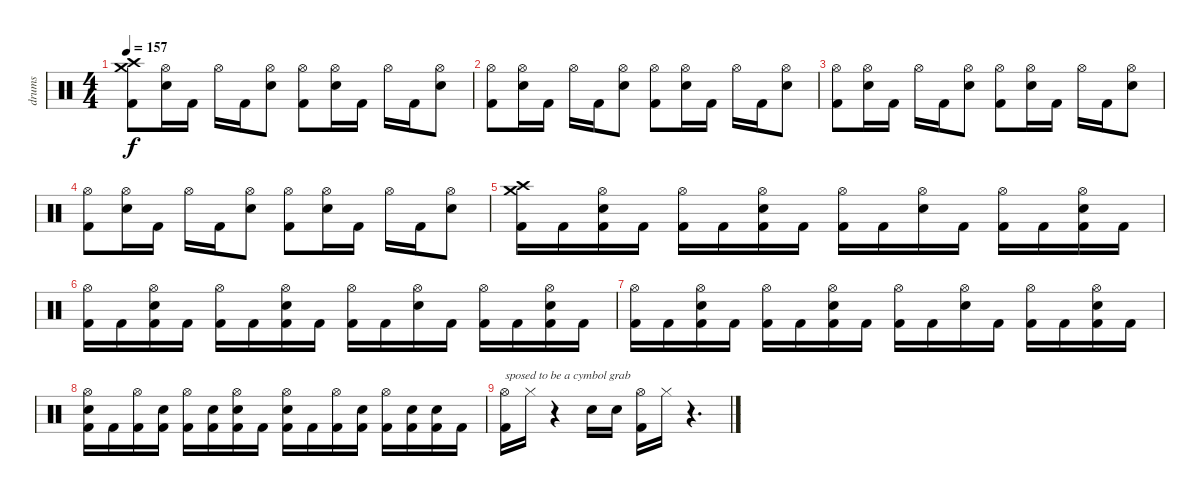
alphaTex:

\track ("drums" "drums") {instrument percussion}
\staff {score}
\articulation defaults
\ts (4 4)
\tempo 157
\clef neutral
\ks c
("Crash high (hit)" "Crash medium (hit)" "Kick (hit) 2").8{dy f} ("Hi-Hat (open)" "Electric Snare (hit)").16 "Kick (hit) 2".16 "Hi-Hat (open)".16 "Kick (hit) 2".16 ("Hi-Hat (open)" "Electric Snare (hit)").8 ("Hi-Hat (open)" "Kick (hit) 2").8 ("Hi-Hat (open)" "Electric Snare (hit)").16 "Kick (hit) 2".16 "Hi-Hat (open)".16 "Kick (hit) 2".16 ("Hi-Hat (open)" "Electric Snare (hit)").8 |
("Hi-Hat (open)" "Kick (hit) 2").8 ("Hi-Hat (open)" "Electric Snare (hit)").16 "Kick (hit) 2".16 "Hi-Hat (open)".16 "Kick (hit) 2".16 ("Hi-Hat (open)" "Electric Snare (hit)").8 ("Hi-Hat (open)" "Kick (hit) 2").8 ("Hi-Hat (open)" "Electric Snare (hit)").16 "Kick (hit) 2".16 "Hi-Hat (open)".16 "Kick (hit) 2".16 ("Hi-Hat (open)" "Electric Snare (hit)").8 |
("Hi-Hat (open)" "Kick (hit) 2").8 ("Hi-Hat (open)" "Electric Snare (hit)").16 "Kick (hit) 2".16 "Hi-Hat (open)".16 "Kick (hit) 2".16 ("Hi-Hat (open)" "Electric Snare (hit)").8 ("Hi-Hat (open)" "Kick (hit) 2").8 ("Hi-Hat (open)" "Electric Snare (hit)").16 "Kick (hit) 2".16 "Hi-Hat (open)".16 "Kick (hit) 2".16 ("Hi-Hat (open)" "Electric Snare (hit)").8 |
("Hi-Hat (open)" "Kick (hit) 2").8 ("Hi-Hat (open)" "Electric Snare (hit)").16 "Kick (hit) 2".16 "Hi-Hat (open)".16 "Kick (hit) 2".16 ("Hi-Hat (open)" "Electric Snare (hit)").8 ("Hi-Hat (open)" "Kick (hit) 2").8 ("Hi-Hat (open)" "Electric Snare (hit)").16 "Kick (hit) 2".16 "Hi-Hat (open)".16 "Kick (hit) 2".16 ("Hi-Hat (open)" "Electric Snare (hit)").8 |
("Crash high (hit)" "Crash medium (hit)" "Kick (hit) 2").16 "Kick (hit) 2".16 ("Hi-Hat (open)" "Electric Snare (hit)" "Kick (hit) 2").16 "Kick (hit) 2".16 ("Hi-Hat (open)" "Kick (hit) 2").16 "Kick (hit) 2".16 ("Hi-Hat (open)" "Electric Snare (hit)" "Kick (hit) 2").16 "Kick (hit) 2".16 ("Hi-Hat (open)" "Kick (hit) 2").16 "Kick (hit) 2".16 ("Hi-Hat (open)" "Electric Snare (hit)").16 "Kick (hit) 2".16 ("Hi-Hat (open)" "Kick (hit) 2").16 "Kick (hit) 2".16 ("Hi-Hat (open)" "Electric Snare (hit)" "Kick (hit) 2").16 "Kick (hit) 2".16 |
("Hi-Hat (open)" "Kick (hit) 2").16 "Kick (hit) 2".16 ("Hi-Hat (open)" "Electric Snare (hit)" "Kick (hit) 2").16 "Kick (hit) 2".16 ("Hi-Hat (open)" "Kick (hit) 2").16 "Kick (hit) 2".16 ("Hi-Hat (open)" "Electric Snare (hit)" "Kick (hit) 2").16 "Kick (hit) 2".16 ("Hi-Hat (open)" "Kick (hit) 2").16 "Kick (hit) 2".16 ("Hi-Hat (open)" "Electric Snare (hit)").16 "Kick (hit) 2".16 ("Hi-Hat (open)" "Kick (hit) 2").16 "Kick (hit) 2".16 ("Hi-Hat (open)" "Electric Snare (hit)" "Kick (hit) 2").16 "Kick (hit) 2".16 |
("Hi-Hat (open)" "Kick (hit) 2").16 "Kick (hit) 2".16 ("Hi-Hat (open)" "Electric Snare (hit)" "Kick (hit) 2").16 "Kick (hit) 2".16 ("Hi-Hat (open)" "Kick (hit) 2").16 "Kick (hit) 2".16 ("Hi-Hat (open)" "Electric Snare (hit)" "Kick (hit) 2").16 "Kick (hit) 2".16 ("Hi-Hat (open)" "Kick (hit) 2").16 "Kick (hit) 2".16 ("Hi-Hat (open)" "Electric Snare (hit)").16 "Kick (hit) 2".16 ("Hi-Hat (open)" "Kick (hit) 2").16 "Kick (hit) 2".16 ("Hi-Hat (open)" "Electric Snare (hit)" "Kick (hit) 2").16 "Kick (hit) 2".16 |
("Hi-Hat (open)" "Electric Snare (hit)" "Kick (hit) 2").16 "Kick (hit) 2".16 ("Hi-Hat (open)" "Kick (hit) 2").16 ("Electric Snare (hit)" "Kick (hit) 2").16 ("Hi-Hat (open)" "Kick (hit) 2").16 ("Electric Snare (hit)" "Kick (hit) 2").16 ("Hi-Hat (open)" "Electric Snare (hit)" "Kick (hit) 2").16 "Kick (hit) 2".16 ("Hi-Hat (open)" "Electric Snare (hit)" "Kick (hit) 2").16 "Kick (hit) 2".16 ("Hi-Hat (open)" "Kick (hit) 2").16 ("Electric Snare (hit)" "Kick (hit) 2").16 ("Hi-Hat (open)" "Kick (hit) 2").16 ("Electric Snare (hit)" "Kick (hit) 2").16 ("Electric Snare (hit)" "Kick (hit) 2").16 "Kick (hit) 2".16 |
("Hi-Hat (open)" "Kick (hit) 2").16{txt "sposed to be a cymbol grab"} "Hi-Hat (closed)".16 r.4 "Electric Snare (hit)".16 "Electric Snare (hit)".16 ("Hi-Hat (open)" "Kick (hit) 2").16 "Hi-Hat (closed)".16 r.4{d}
